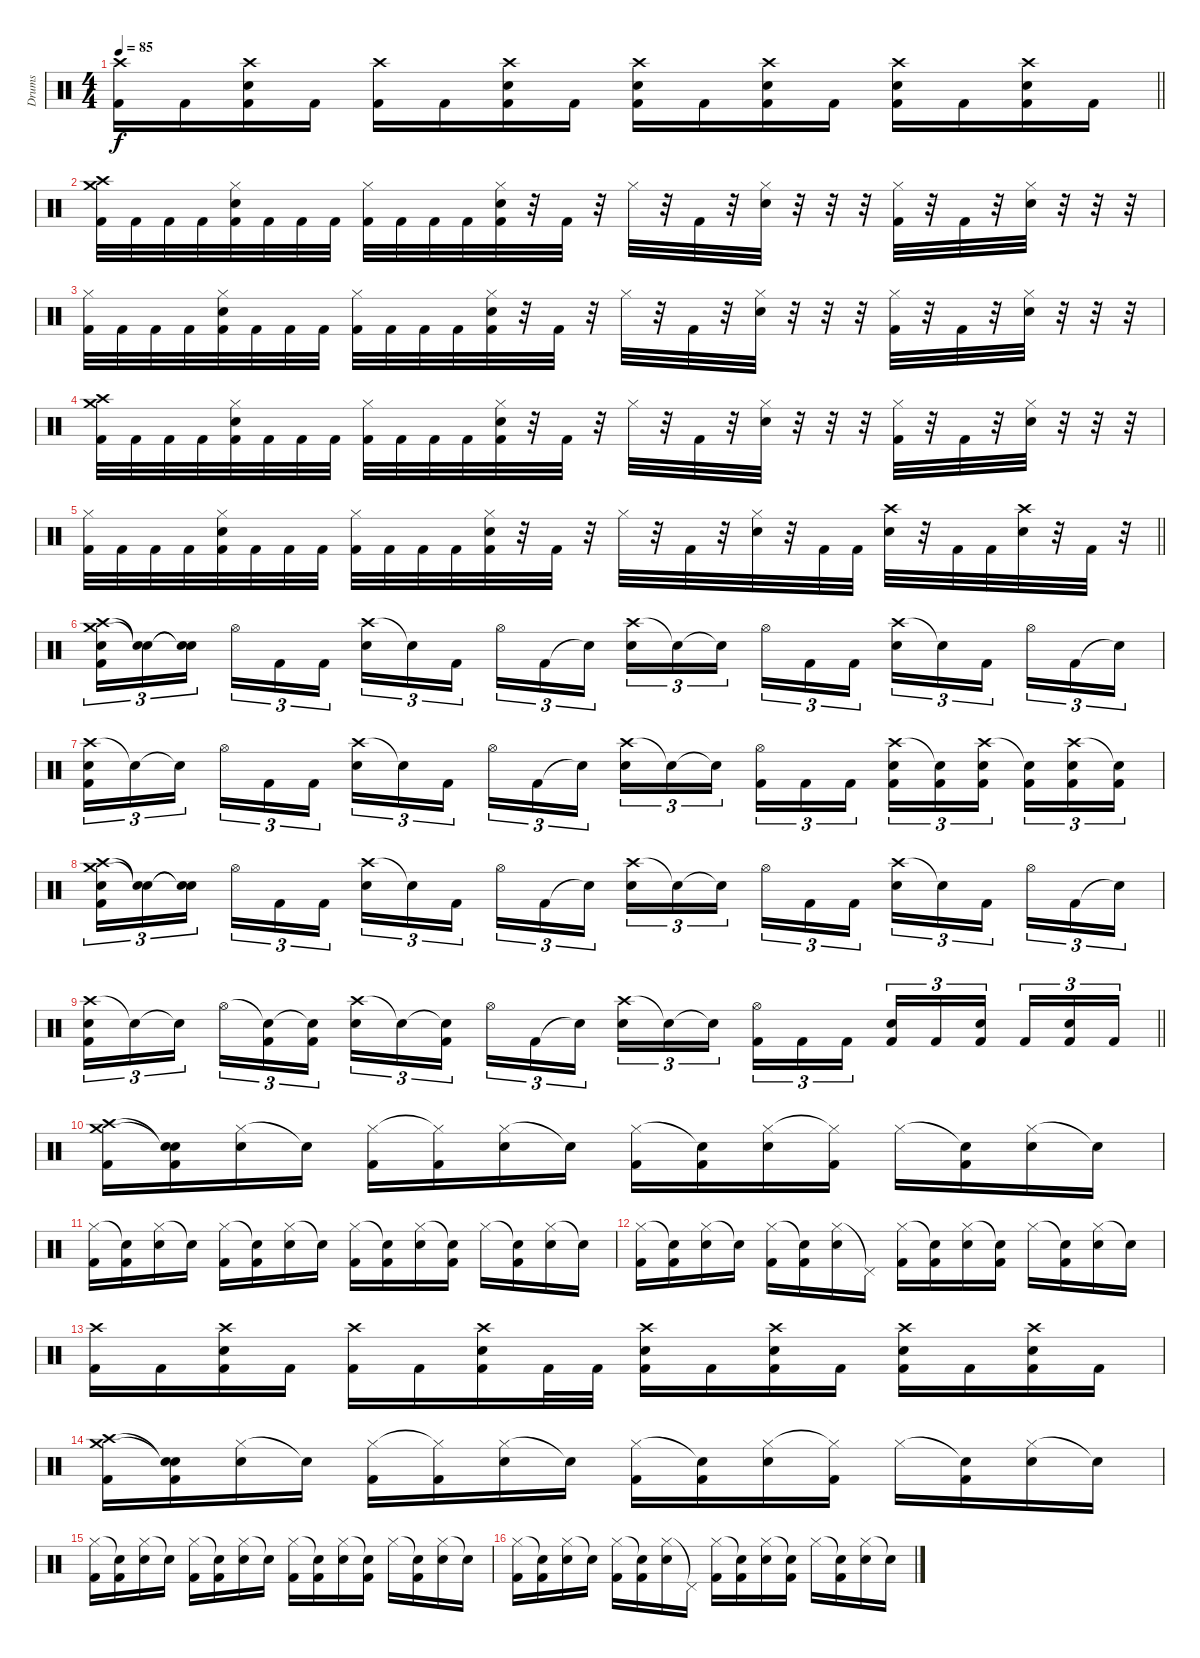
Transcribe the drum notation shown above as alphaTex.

\track ("Drums" "Drums") {instrument percussion}
\staff {score}
\articulation defaults
\ts (4 4)
\tempo 85
\clef neutral
\barLineRight lightlight
\ks c
("Crash high (hit)" "Kick (hit) 2").16{dy f} "Kick (hit) 2".16 ("Crash high (hit)" "Electric Snare (hit)" "Kick (hit) 2").16 "Kick (hit) 2".16 ("Crash high (hit)" "Kick (hit) 2").16 "Kick (hit) 2".16 ("Crash high (hit)" "Electric Snare (hit)" "Kick (hit) 2").16 "Kick (hit) 2".16 ("Crash high (hit)" "Electric Snare (hit)" "Kick (hit) 2").16 "Kick (hit) 2".16 ("Crash high (hit)" "Electric Snare (hit)" "Kick (hit) 2").16 "Kick (hit) 2".16 ("Crash high (hit)" "Electric Snare (hit)" "Kick (hit) 2").16 "Kick (hit) 2".16 ("Crash high (hit)" "Electric Snare (hit)" "Kick (hit) 2").16 "Kick (hit) 2".16 |
("Crash medium (hit)" "Crash high (hit)" "Kick (hit) 2").32 "Kick (hit) 2".32 "Kick (hit) 2".32 "Kick (hit) 2".32 ("Hi-Hat (closed)" "Electric Snare (hit)" "Kick (hit) 2").32 "Kick (hit) 2".32 "Kick (hit) 2".32 "Kick (hit) 2".32 ("Hi-Hat (closed)" "Kick (hit) 2").32 "Kick (hit) 2".32 "Kick (hit) 2".32 "Kick (hit) 2".32 ("Hi-Hat (closed)" "Electric Snare (hit)" "Kick (hit) 2").32 r.32 "Kick (hit) 2".32 r.32 "Hi-Hat (closed)".32 r.32 "Kick (hit) 2".32 r.32 ("Hi-Hat (closed)" "Electric Snare (hit)").32 r.32 r.32 r.32 ("Hi-Hat (closed)" "Kick (hit) 2").32 r.32 "Kick (hit) 2".32 r.32 ("Hi-Hat (closed)" "Electric Snare (hit)").32 r.32 r.32 r.32 |
("Hi-Hat (closed)" "Kick (hit) 2").32 "Kick (hit) 2".32 "Kick (hit) 2".32 "Kick (hit) 2".32 ("Hi-Hat (closed)" "Electric Snare (hit)" "Kick (hit) 2").32 "Kick (hit) 2".32 "Kick (hit) 2".32 "Kick (hit) 2".32 ("Hi-Hat (closed)" "Kick (hit) 2").32 "Kick (hit) 2".32 "Kick (hit) 2".32 "Kick (hit) 2".32 ("Hi-Hat (closed)" "Electric Snare (hit)" "Kick (hit) 2").32 r.32 "Kick (hit) 2".32 r.32 "Hi-Hat (closed)".32 r.32 "Kick (hit) 2".32 r.32 ("Hi-Hat (closed)" "Electric Snare (hit)").32 r.32 r.32 r.32 ("Hi-Hat (closed)" "Kick (hit) 2").32 r.32 "Kick (hit) 2".32 r.32 ("Hi-Hat (closed)" "Electric Snare (hit)").32 r.32 r.32 r.32 |
("Crash medium (hit)" "Crash high (hit)" "Kick (hit) 2").32 "Kick (hit) 2".32 "Kick (hit) 2".32 "Kick (hit) 2".32 ("Hi-Hat (closed)" "Electric Snare (hit)" "Kick (hit) 2").32 "Kick (hit) 2".32 "Kick (hit) 2".32 "Kick (hit) 2".32 ("Hi-Hat (closed)" "Kick (hit) 2").32 "Kick (hit) 2".32 "Kick (hit) 2".32 "Kick (hit) 2".32 ("Hi-Hat (closed)" "Electric Snare (hit)" "Kick (hit) 2").32 r.32 "Kick (hit) 2".32 r.32 "Hi-Hat (closed)".32 r.32 "Kick (hit) 2".32 r.32 ("Hi-Hat (closed)" "Electric Snare (hit)").32 r.32 r.32 r.32 ("Hi-Hat (closed)" "Kick (hit) 2").32 r.32 "Kick (hit) 2".32 r.32 ("Hi-Hat (closed)" "Electric Snare (hit)").32 r.32 r.32 r.32 |
\barLineRight lightlight
("Hi-Hat (closed)" "Kick (hit) 2").32 "Kick (hit) 2".32 "Kick (hit) 2".32 "Kick (hit) 2".32 ("Hi-Hat (closed)" "Electric Snare (hit)" "Kick (hit) 2").32 "Kick (hit) 2".32 "Kick (hit) 2".32 "Kick (hit) 2".32 ("Hi-Hat (closed)" "Kick (hit) 2").32 "Kick (hit) 2".32 "Kick (hit) 2".32 "Kick (hit) 2".32 ("Hi-Hat (closed)" "Electric Snare (hit)" "Kick (hit) 2").32 r.32 "Kick (hit) 2".32 r.32 "Hi-Hat (closed)".32 r.32 "Kick (hit) 2".32 r.32 ("Hi-Hat (closed)" "Electric Snare (hit)").32 r.32 "Kick (hit) 2".32 "Kick (hit) 2".32 ("Crash high (hit)" "Electric Snare (hit)").32 r.32 "Kick (hit) 2".32 "Kick (hit) 2".32 ("Crash high (hit)" "Electric Snare (hit)").32 r.32 "Kick (hit) 2".32 r.32 |
("Crash medium (hit)" "Crash high (hit)" "Electric Snare (hit)" "Kick (hit) 2").16{tu (3 2)} ("Snare (hit)"{t} "Snare (hit)"{t}).16{tu (3 2)} ("Snare (hit)"{t} "Snare (hit)"{t}).16{tu (3 2) beam splitsecondary} "Hi-Hat (open)".16{tu (3 2)} "Kick (hit) 2".16{tu (3 2)} "Kick (hit) 2".16{tu (3 2)} ("Crash high (hit)" "Electric Snare (hit)").16{tu (3 2)} "Snare (hit)"{t}.16{tu (3 2)} "Kick (hit) 2".16{tu (3 2) beam splitsecondary} "Hi-Hat (open)".16{tu (3 2)} "Kick (hit) 2".16{tu (3 2)} "Snare (hit)"{t}.16{tu (3 2)} ("Crash high (hit)" "Electric Snare (hit)").16{tu (3 2)} "Snare (hit)"{t}.16{tu (3 2)} "Snare (hit)"{t}.16{tu (3 2) beam splitsecondary} "Hi-Hat (open)".16{tu (3 2)} "Kick (hit) 2".16{tu (3 2)} "Kick (hit) 2".16{tu (3 2)} ("Crash high (hit)" "Electric Snare (hit)").16{tu (3 2)} "Snare (hit)"{t}.16{tu (3 2)} "Kick (hit) 2".16{tu (3 2) beam splitsecondary} "Hi-Hat (open)".16{tu (3 2)} "Kick (hit) 2".16{tu (3 2)} "Snare (hit)"{t}.16{tu (3 2)} |
("Crash high (hit)" "Electric Snare (hit)" "Kick (hit) 2").16{tu (3 2)} "Snare (hit)"{t}.16{tu (3 2)} "Snare (hit)"{t}.16{tu (3 2) beam splitsecondary} "Hi-Hat (open)".16{tu (3 2)} "Kick (hit) 2".16{tu (3 2)} "Kick (hit) 2".16{tu (3 2)} ("Crash high (hit)" "Electric Snare (hit)").16{tu (3 2)} "Snare (hit)"{t}.16{tu (3 2)} "Kick (hit) 2".16{tu (3 2) beam splitsecondary} "Hi-Hat (open)".16{tu (3 2)} "Kick (hit) 2".16{tu (3 2)} "Snare (hit)"{t}.16{tu (3 2)} ("Crash high (hit)" "Electric Snare (hit)").16{tu (3 2)} "Snare (hit)"{t}.16{tu (3 2)} "Snare (hit)"{t}.16{tu (3 2) beam splitsecondary} ("Hi-Hat (open)" "Kick (hit) 2").16{tu (3 2)} "Kick (hit) 2".16{tu (3 2)} "Kick (hit) 2".16{tu (3 2)} ("Crash high (hit)" "Electric Snare (hit)" "Kick (hit) 2").16{tu (3 2)} ("Snare (hit)"{t} "Kick (hit) 2").16{tu (3 2)} ("Crash high (hit)" "Electric Snare (hit)" "Kick (hit) 2").16{tu (3 2) beam splitsecondary} ("Snare (hit)"{t} "Kick (hit) 2").16{tu (3 2)} ("Crash high (hit)" "Electric Snare (hit)" "Kick (hit) 2").16{tu (3 2)} ("Snare (hit)"{t} "Kick (hit) 2").16{tu (3 2)} |
("Crash medium (hit)" "Crash high (hit)" "Electric Snare (hit)" "Kick (hit) 2").16{tu (3 2)} ("Snare (hit)"{t} "Snare (hit)"{t}).16{tu (3 2)} ("Snare (hit)"{t} "Snare (hit)"{t}).16{tu (3 2) beam splitsecondary} "Hi-Hat (open)".16{tu (3 2)} "Kick (hit) 2".16{tu (3 2)} "Kick (hit) 2".16{tu (3 2)} ("Crash high (hit)" "Electric Snare (hit)").16{tu (3 2)} "Snare (hit)"{t}.16{tu (3 2)} "Kick (hit) 2".16{tu (3 2) beam splitsecondary} "Hi-Hat (open)".16{tu (3 2)} "Kick (hit) 2".16{tu (3 2)} "Snare (hit)"{t}.16{tu (3 2)} ("Crash high (hit)" "Electric Snare (hit)").16{tu (3 2)} "Snare (hit)"{t}.16{tu (3 2)} "Snare (hit)"{t}.16{tu (3 2) beam splitsecondary} "Hi-Hat (open)".16{tu (3 2)} "Kick (hit) 2".16{tu (3 2)} "Kick (hit) 2".16{tu (3 2)} ("Crash high (hit)" "Electric Snare (hit)").16{tu (3 2)} "Snare (hit)"{t}.16{tu (3 2)} "Kick (hit) 2".16{tu (3 2) beam splitsecondary} "Hi-Hat (open)".16{tu (3 2)} "Kick (hit) 2".16{tu (3 2)} "Snare (hit)"{t}.16{tu (3 2)} |
\barLineRight lightlight
("Crash high (hit)" "Electric Snare (hit)" "Kick (hit) 2").16{tu (3 2)} "Snare (hit)"{t}.16{tu (3 2)} "Snare (hit)"{t}.16{tu (3 2) beam splitsecondary} "Hi-Hat (open)".16{tu (3 2)} ("Snare (hit)"{t} "Kick (hit) 2").16{tu (3 2)} ("Snare (hit)"{t} "Kick (hit) 2").16{tu (3 2)} ("Crash high (hit)" "Electric Snare (hit)").16{tu (3 2)} "Snare (hit)"{t}.16{tu (3 2)} ("Snare (hit)"{t} "Kick (hit) 2").16{tu (3 2) beam splitsecondary} "Hi-Hat (open)".16{tu (3 2)} "Kick (hit) 2".16{tu (3 2)} "Snare (hit)"{t}.16{tu (3 2)} ("Crash high (hit)" "Electric Snare (hit)").16{tu (3 2)} "Snare (hit)"{t}.16{tu (3 2)} "Snare (hit)"{t}.16{tu (3 2) beam splitsecondary} ("Hi-Hat (open)" "Kick (hit) 2").16{tu (3 2)} "Kick (hit) 2".16{tu (3 2)} "Kick (hit) 2".16{tu (3 2)} ("Electric Snare (hit)" "Kick (hit) 2").16{tu (3 2)} "Kick (hit) 2".16{tu (3 2)} ("Electric Snare (hit)" "Kick (hit) 2").16{tu (3 2) beam splitsecondary} "Kick (hit) 2".16{tu (3 2)} ("Electric Snare (hit)" "Kick (hit) 2").16{tu (3 2)} "Kick (hit) 2".16{tu (3 2)} |
("Crash medium (hit)" "Crash high (hit)" "Kick (hit) 2").16 ("Snare (hit)"{t} "Snare (hit)"{t} "Kick (hit) 2").16 ("Hi-Hat (closed)" "Electric Snare (hit)").16 "Snare (hit)"{t}.16 ("Hi-Hat (closed)" "Kick (hit) 2").16 ("Hi-Hat (closed)"{t} "Kick (hit) 2").16 ("Hi-Hat (closed)" "Electric Snare (hit)").16 "Snare (hit)"{t}.16 ("Hi-Hat (closed)" "Kick (hit) 2").16 ("Snare (hit)"{t} "Kick (hit) 2").16 ("Hi-Hat (closed)" "Electric Snare (hit)").16 ("Hi-Hat (closed)"{t} "Kick (hit) 2").16 "Hi-Hat (closed)".16 ("Snare (hit)"{t} "Kick (hit) 2").16 ("Hi-Hat (closed)" "Electric Snare (hit)").16 "Snare (hit)"{t}.16 |
("Hi-Hat (closed)" "Kick (hit) 2").16 ("Snare (hit)"{t} "Kick (hit) 2").16 ("Hi-Hat (closed)" "Electric Snare (hit)").16 "Snare (hit)"{t}.16 ("Hi-Hat (closed)" "Kick (hit) 2").16 ("Snare (hit)"{t} "Kick (hit) 2").16 ("Hi-Hat (closed)" "Electric Snare (hit)").16 "Snare (hit)"{t}.16 ("Hi-Hat (closed)" "Kick (hit) 2").16 ("Snare (hit)"{t} "Kick (hit) 2").16 ("Hi-Hat (closed)" "Electric Snare (hit)").16 ("Snare (hit)"{t} "Kick (hit) 2").16 "Hi-Hat (closed)".16 ("Snare (hit)"{t} "Kick (hit) 2").16 ("Hi-Hat (closed)" "Electric Snare (hit)").16 "Snare (hit)"{t}.16 |
("Hi-Hat (closed)" "Kick (hit) 2").16 ("Snare (hit)"{t} "Kick (hit) 2").16 ("Hi-Hat (closed)" "Electric Snare (hit)").16 "Snare (hit)"{t}.16 ("Hi-Hat (closed)" "Kick (hit) 2").16 ("Snare (hit)"{t} "Kick (hit) 2").16 ("Hi-Hat (closed)" "Electric Snare (hit)").16 "Pedal Hi-Hat (hit)"{t}.16 ("Hi-Hat (closed)" "Kick (hit) 2").16 ("Snare (hit)"{t} "Kick (hit) 2").16 ("Hi-Hat (closed)" "Electric Snare (hit)").16 ("Snare (hit)"{t} "Kick (hit) 2").16 "Hi-Hat (closed)".16 ("Snare (hit)"{t} "Kick (hit) 2").16 ("Hi-Hat (closed)" "Electric Snare (hit)").16 "Snare (hit)"{t}.16 |
("Crash high (hit)" "Kick (hit) 2").16 "Kick (hit) 2".16 ("Crash high (hit)" "Electric Snare (hit)" "Kick (hit) 2").16 "Kick (hit) 2".16 ("Crash high (hit)" "Kick (hit) 2").16 "Kick (hit) 2".16 ("Crash high (hit)" "Electric Snare (hit)" "Kick (hit) 2").16 "Kick (hit) 2".32 "Kick (hit) 2".32 ("Crash high (hit)" "Electric Snare (hit)" "Kick (hit) 2").16 "Kick (hit) 2".16 ("Crash high (hit)" "Electric Snare (hit)" "Kick (hit) 2").16 "Kick (hit) 2".16 ("Crash high (hit)" "Electric Snare (hit)" "Kick (hit) 2").16 "Kick (hit) 2".16 ("Crash high (hit)" "Electric Snare (hit)" "Kick (hit) 2").16 "Kick (hit) 2".16 |
("Crash medium (hit)" "Crash high (hit)" "Kick (hit) 2").16 ("Snare (hit)"{t} "Snare (hit)"{t} "Kick (hit) 2").16 ("Hi-Hat (closed)" "Electric Snare (hit)").16 "Snare (hit)"{t}.16 ("Hi-Hat (closed)" "Kick (hit) 2").16 ("Hi-Hat (closed)"{t} "Kick (hit) 2").16 ("Hi-Hat (closed)" "Electric Snare (hit)").16 "Snare (hit)"{t}.16 ("Hi-Hat (closed)" "Kick (hit) 2").16 ("Snare (hit)"{t} "Kick (hit) 2").16 ("Hi-Hat (closed)" "Electric Snare (hit)").16 ("Hi-Hat (closed)"{t} "Kick (hit) 2").16 "Hi-Hat (closed)".16 ("Snare (hit)"{t} "Kick (hit) 2").16 ("Hi-Hat (closed)" "Electric Snare (hit)").16 "Snare (hit)"{t}.16 |
("Hi-Hat (closed)" "Kick (hit) 2").16 ("Snare (hit)"{t} "Kick (hit) 2").16 ("Hi-Hat (closed)" "Electric Snare (hit)").16 "Snare (hit)"{t}.16 ("Hi-Hat (closed)" "Kick (hit) 2").16 ("Snare (hit)"{t} "Kick (hit) 2").16 ("Hi-Hat (closed)" "Electric Snare (hit)").16 "Snare (hit)"{t}.16 ("Hi-Hat (closed)" "Kick (hit) 2").16 ("Snare (hit)"{t} "Kick (hit) 2").16 ("Hi-Hat (closed)" "Electric Snare (hit)").16 ("Snare (hit)"{t} "Kick (hit) 2").16 "Hi-Hat (closed)".16 ("Snare (hit)"{t} "Kick (hit) 2").16 ("Hi-Hat (closed)" "Electric Snare (hit)").16 "Snare (hit)"{t}.16 |
("Hi-Hat (closed)" "Kick (hit) 2").16 ("Snare (hit)"{t} "Kick (hit) 2").16 ("Hi-Hat (closed)" "Electric Snare (hit)").16 "Snare (hit)"{t}.16 ("Hi-Hat (closed)" "Kick (hit) 2").16 ("Snare (hit)"{t} "Kick (hit) 2").16 ("Hi-Hat (closed)" "Electric Snare (hit)").16 "Pedal Hi-Hat (hit)"{t}.16 ("Hi-Hat (closed)" "Kick (hit) 2").16 ("Snare (hit)"{t} "Kick (hit) 2").16 ("Hi-Hat (closed)" "Electric Snare (hit)").16 ("Snare (hit)"{t} "Kick (hit) 2").16 "Hi-Hat (closed)".16 ("Snare (hit)"{t} "Kick (hit) 2").16 ("Hi-Hat (closed)" "Electric Snare (hit)").16 "Snare (hit)"{t}.16
